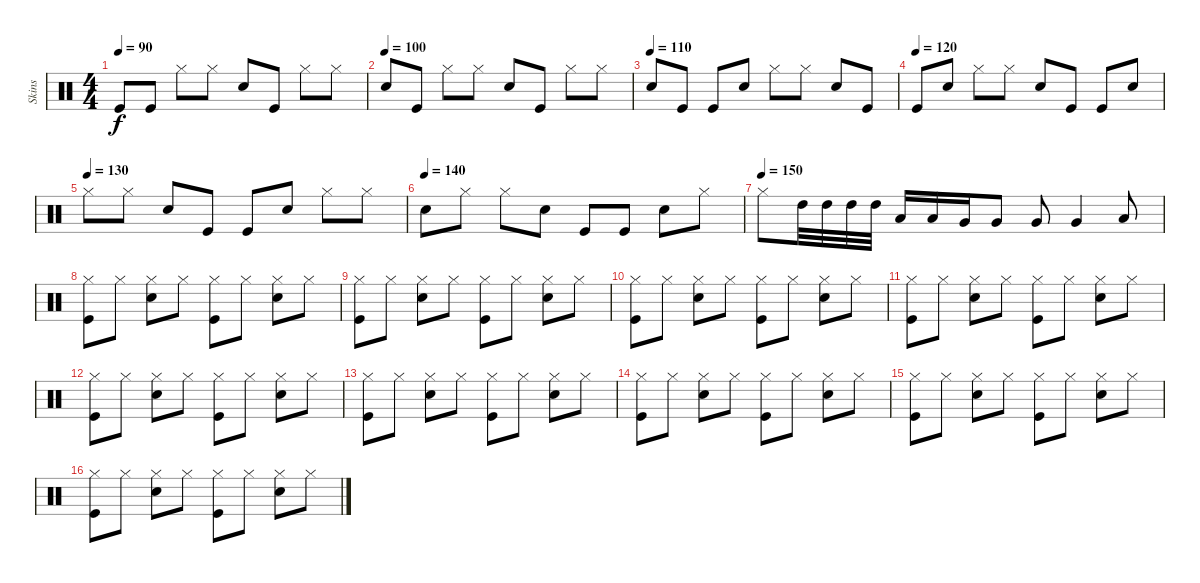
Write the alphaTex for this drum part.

\track ("Skins" "Skins") {instrument percussion}
\staff {score}
\articulation defaults
\ts (4 4)
\tempo 90
\clef neutral
\ks c "Kick (hit)".8{dy f} "Kick (hit)".8 "Hi-Hat (closed)".8 "Hi-Hat (closed)".8 "Snare (hit) 2".8 "Kick (hit)".8 "Hi-Hat (closed)".8 "Hi-Hat (closed)".8
|
\tempo (100)
"Snare (hit) 2".8 "Kick (hit)".8 "Hi-Hat (closed)".8 "Hi-Hat (closed)".8 "Snare (hit) 2".8 "Kick (hit)".8 "Hi-Hat (closed)".8 "Hi-Hat (closed)".8 |
\tempo (110)
"Snare (hit) 2".8 "Kick (hit)".8 "Kick (hit)".8 "Snare (hit) 2".8 "Hi-Hat (closed)".8 "Hi-Hat (closed)".8 "Snare (hit) 2".8 "Kick (hit)".8 |
\tempo (120)
"Kick (hit)".8 "Snare (hit) 2".8 "Hi-Hat (closed)".8 "Hi-Hat (closed)".8 "Snare (hit) 2".8 "Kick (hit)".8 "Kick (hit)".8 "Snare (hit) 2".8 |
\tempo (130)
"Hi-Hat (closed)".8 "Hi-Hat (closed)".8 "Snare (hit) 2".8 "Kick (hit)".8 "Kick (hit)".8 "Snare (hit) 2".8 "Hi-Hat (closed)".8 "Hi-Hat (closed)".8 |
\tempo (140)
"Snare (hit) 2".8 "Hi-Hat (closed)".8 "Hi-Hat (closed)".8 "Snare (hit) 2".8 "Kick (hit)".8 "Kick (hit)".8 "Snare (hit) 2".8 "Hi-Hat (closed)".8 |
\tempo (150)
"Hi-Hat (closed)".8 "High Tom (hit)".32 "High Tom (hit)".32 "High Tom (hit)".32 "High Tom (hit)".32 "Low Tom (hit)".16 "Low Tom (hit)".16 "Very Low Tom (hit)".16 "Very Low Tom (hit)".8 "Very Low Tom (hit)".8 "Very Low Tom (hit)".4 "Low Tom (hit)".8 |
("Hi-Hat (closed)" "Kick (hit)").8 "Hi-Hat (closed)".8 ("Hi-Hat (closed)" "Snare (hit) 2").8 "Hi-Hat (closed)".8 ("Hi-Hat (closed)" "Kick (hit)").8 "Hi-Hat (closed)".8 ("Hi-Hat (closed)" "Snare (hit) 2").8 "Hi-Hat (closed)".8 |
("Hi-Hat (closed)" "Kick (hit)").8 "Hi-Hat (closed)".8 ("Hi-Hat (closed)" "Snare (hit) 2").8 "Hi-Hat (closed)".8 ("Hi-Hat (closed)" "Kick (hit)").8 "Hi-Hat (closed)".8 ("Hi-Hat (closed)" "Snare (hit) 2").8 "Hi-Hat (closed)".8 |
("Hi-Hat (closed)" "Kick (hit)").8 "Hi-Hat (closed)".8 ("Hi-Hat (closed)" "Snare (hit) 2").8 "Hi-Hat (closed)".8 ("Hi-Hat (closed)" "Kick (hit)").8 "Hi-Hat (closed)".8 ("Hi-Hat (closed)" "Snare (hit) 2").8 "Hi-Hat (closed)".8 |
("Hi-Hat (closed)" "Kick (hit)").8 "Hi-Hat (closed)".8 ("Hi-Hat (closed)" "Snare (hit) 2").8 "Hi-Hat (closed)".8 ("Hi-Hat (closed)" "Kick (hit)").8 "Hi-Hat (closed)".8 ("Hi-Hat (closed)" "Snare (hit) 2").8 "Hi-Hat (closed)".8 |
("Hi-Hat (closed)" "Kick (hit)").8 "Hi-Hat (closed)".8 ("Hi-Hat (closed)" "Snare (hit) 2").8 "Hi-Hat (closed)".8 ("Hi-Hat (closed)" "Kick (hit)").8 "Hi-Hat (closed)".8 ("Hi-Hat (closed)" "Snare (hit) 2").8 "Hi-Hat (closed)".8 |
("Hi-Hat (closed)" "Kick (hit)").8 "Hi-Hat (closed)".8 ("Hi-Hat (closed)" "Snare (hit) 2").8 "Hi-Hat (closed)".8 ("Hi-Hat (closed)" "Kick (hit)").8 "Hi-Hat (closed)".8 ("Hi-Hat (closed)" "Snare (hit) 2").8 "Hi-Hat (closed)".8 |
("Hi-Hat (closed)" "Kick (hit)").8 "Hi-Hat (closed)".8 ("Hi-Hat (closed)" "Snare (hit) 2").8 "Hi-Hat (closed)".8 ("Hi-Hat (closed)" "Kick (hit)").8 "Hi-Hat (closed)".8 ("Hi-Hat (closed)" "Snare (hit) 2").8 "Hi-Hat (closed)".8 |
("Hi-Hat (closed)" "Kick (hit)").8 "Hi-Hat (closed)".8 ("Hi-Hat (closed)" "Snare (hit) 2").8 "Hi-Hat (closed)".8 ("Hi-Hat (closed)" "Kick (hit)").8 "Hi-Hat (closed)".8 ("Hi-Hat (closed)" "Snare (hit) 2").8 "Hi-Hat (closed)".8 |
("Hi-Hat (closed)" "Kick (hit)").8 "Hi-Hat (closed)".8 ("Hi-Hat (closed)" "Snare (hit) 2").8 "Hi-Hat (closed)".8 ("Hi-Hat (closed)" "Kick (hit)").8 "Hi-Hat (closed)".8 ("Hi-Hat (closed)" "Snare (hit) 2").8 "Hi-Hat (closed)".8
